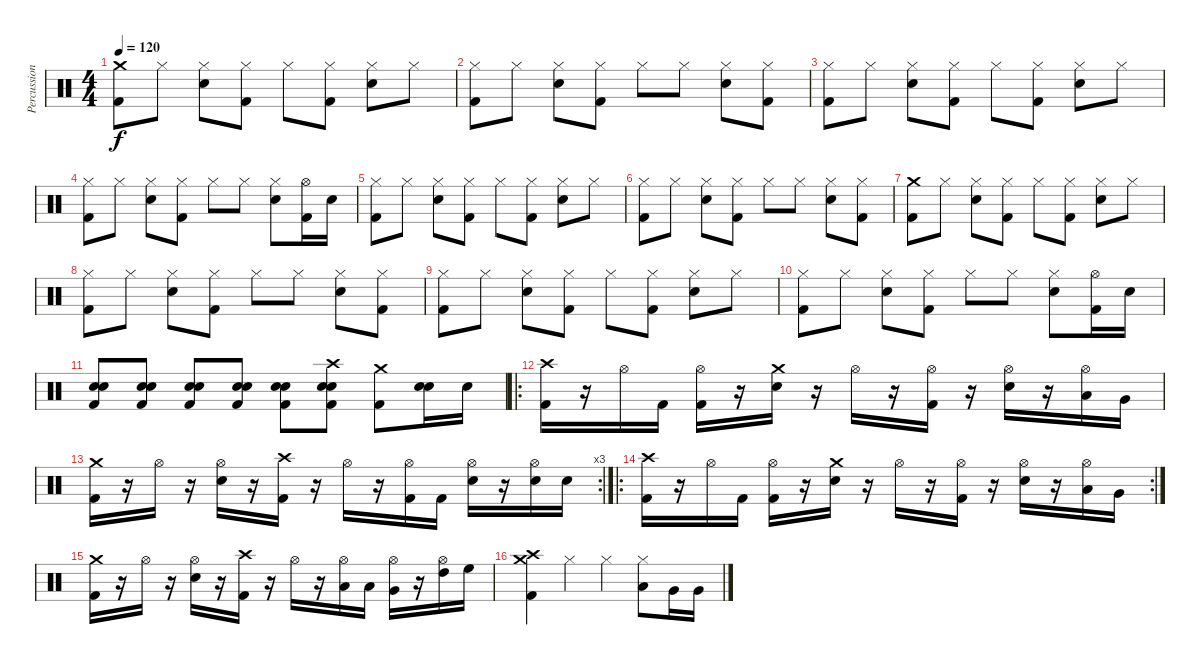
\track ("Percussion" "Percussion") {instrument percussion}
\staff {score}
\articulation defaults
\ts (4 4)
\tempo 120
\clef neutral
\ks c
("Crash medium (hit)" "Kick (hit) 2").8{dy f} "Hi-Hat (closed)".8 ("Hi-Hat (closed)" "Snare (hit) 2").8 ("Hi-Hat (closed)" "Kick (hit) 2").8 "Hi-Hat (closed)".8 ("Hi-Hat (closed)" "Kick (hit) 2").8 ("Hi-Hat (closed)" "Snare (hit) 2").8 "Hi-Hat (closed)".8 |
("Hi-Hat (closed)" "Kick (hit) 2").8 "Hi-Hat (closed)".8 ("Hi-Hat (closed)" "Snare (hit) 2").8 ("Hi-Hat (closed)" "Kick (hit) 2").8 "Hi-Hat (closed)".8 "Hi-Hat (closed)".8 ("Hi-Hat (closed)" "Snare (hit) 2").8 ("Hi-Hat (closed)" "Kick (hit) 2").8 |
("Hi-Hat (closed)" "Kick (hit) 2").8 "Hi-Hat (closed)".8 ("Hi-Hat (closed)" "Snare (hit) 2").8 ("Hi-Hat (closed)" "Kick (hit) 2").8 "Hi-Hat (closed)".8 ("Hi-Hat (closed)" "Kick (hit) 2").8 ("Hi-Hat (closed)" "Snare (hit) 2").8 "Hi-Hat (closed)".8 |
("Hi-Hat (closed)" "Kick (hit) 2").8 "Hi-Hat (closed)".8 ("Hi-Hat (closed)" "Snare (hit) 2").8 ("Hi-Hat (closed)" "Kick (hit) 2").8 "Hi-Hat (closed)".8 "Hi-Hat (closed)".8 ("Hi-Hat (closed)" "Snare (hit) 2").8 ("Hi-Hat (open)" "Kick (hit) 2").16 "Snare (hit) 2".16 |
("Hi-Hat (closed)" "Kick (hit) 2").8 "Hi-Hat (closed)".8 ("Hi-Hat (closed)" "Snare (hit) 2").8 ("Hi-Hat (closed)" "Kick (hit) 2").8 "Hi-Hat (closed)".8 ("Hi-Hat (closed)" "Kick (hit) 2").8 ("Hi-Hat (closed)" "Snare (hit) 2").8 "Hi-Hat (closed)".8 |
("Hi-Hat (closed)" "Kick (hit) 2").8 "Hi-Hat (closed)".8 ("Hi-Hat (closed)" "Snare (hit) 2").8 ("Hi-Hat (closed)" "Kick (hit) 2").8 "Hi-Hat (closed)".8 "Hi-Hat (closed)".8 ("Hi-Hat (closed)" "Snare (hit) 2").8 ("Hi-Hat (closed)" "Kick (hit) 2").8 |
("Crash medium (hit)" "Kick (hit) 2").8 "Hi-Hat (closed)".8 ("Hi-Hat (closed)" "Snare (hit) 2").8 ("Hi-Hat (closed)" "Kick (hit) 2").8 "Hi-Hat (closed)".8 ("Hi-Hat (closed)" "Kick (hit) 2").8 ("Hi-Hat (closed)" "Snare (hit) 2").8 "Hi-Hat (closed)".8 |
("Hi-Hat (closed)" "Kick (hit) 2").8 "Hi-Hat (closed)".8 ("Hi-Hat (closed)" "Snare (hit) 2").8 ("Hi-Hat (closed)" "Kick (hit) 2").8 "Hi-Hat (closed)".8 "Hi-Hat (closed)".8 ("Hi-Hat (closed)" "Snare (hit) 2").8 ("Hi-Hat (closed)" "Kick (hit) 2").8 |
("Hi-Hat (closed)" "Kick (hit) 2").8 "Hi-Hat (closed)".8 ("Hi-Hat (closed)" "Snare (hit) 2").8 ("Hi-Hat (closed)" "Kick (hit) 2").8 "Hi-Hat (closed)".8 ("Hi-Hat (closed)" "Kick (hit) 2").8 ("Hi-Hat (closed)" "Snare (hit) 2").8 "Hi-Hat (closed)".8 |
("Hi-Hat (closed)" "Kick (hit) 2").8 "Hi-Hat (closed)".8 ("Hi-Hat (closed)" "Snare (hit) 2").8 ("Hi-Hat (closed)" "Kick (hit) 2").8 "Hi-Hat (closed)".8 "Hi-Hat (closed)".8 ("Hi-Hat (closed)" "Snare (hit) 2").8 ("Hi-Hat (open)" "Kick (hit) 2").16 "Snare (hit) 2".16 |
("Snare (hit) 2" "Snare (hit) 2" "Kick (hit) 2").8 ("Snare (hit) 2" "Snare (hit) 2" "Kick (hit) 2").8 ("Snare (hit) 2" "Snare (hit) 2" "Kick (hit) 2").8 ("Snare (hit) 2" "Snare (hit) 2" "Kick (hit) 2").8 ("Snare (hit) 2" "Snare (hit) 2" "Kick (hit) 2").8 ("Crash high (hit)" "Snare (hit) 2" "Snare (hit) 2" "Kick (hit) 2").8 ("Crash medium (hit)" "Kick (hit) 2").8 ("Snare (hit) 2" "Snare (hit) 2").16 "Snare (hit) 2".16 |
\ro
("Crash high (hit)" "Kick (hit) 2").16 r.16 "Hi-Hat (open)".16 "Kick (hit) 2".16 ("Hi-Hat (open)" "Kick (hit) 2").16 r.16 ("Crash medium (hit)" "Snare (hit) 2").16 r.16 "Hi-Hat (open)".16 r.16 ("Hi-Hat (open)" "Kick (hit) 2").16 r.16 ("Hi-Hat (open)" "Snare (hit) 2").16 r.16 ("Hi-Hat (open)" "Low Tom (hit)").16 "Very Low Tom (hit)".16 |
\rc 3
("Crash medium (hit)" "Kick (hit) 2").16 r.16 "Hi-Hat (open)".16 r.16 ("Hi-Hat (open)" "Snare (hit) 2").16 r.16 ("Crash high (hit)" "Kick (hit) 2").16 r.16 "Hi-Hat (open)".16 r.16 ("Hi-Hat (open)" "Kick (hit) 2").16 "Kick (hit) 2".16 ("Hi-Hat (open)" "Snare (hit) 2").16 r.16 ("Hi-Hat (open)" "Snare (hit) 2").16 "Snare (hit) 2".16 |
\ro
\rc 2
("Crash high (hit)" "Kick (hit) 2").16 r.16 "Hi-Hat (open)".16 "Kick (hit) 2".16 ("Hi-Hat (open)" "Kick (hit) 2").16 r.16 ("Crash medium (hit)" "Snare (hit) 2").16 r.16 "Hi-Hat (open)".16 r.16 ("Hi-Hat (open)" "Kick (hit) 2").16 r.16 ("Hi-Hat (open)" "Snare (hit) 2").16 r.16 ("Hi-Hat (open)" "Low Tom (hit)").16 "Very Low Tom (hit)".16 |
("Crash medium (hit)" "Kick (hit) 2").16 r.16 "Hi-Hat (open)".16 r.16 ("Hi-Hat (open)" "Snare (hit) 2").16 r.16 ("Crash high (hit)" "Kick (hit) 2").16 r.16 "Hi-Hat (open)".16 r.16 ("Hi-Hat (open)" "Low Tom (hit)").16 "Low Tom (hit)".16 ("Hi-Hat (open)" "Very Low Tom (hit)").16 r.16 ("Hi-Hat (open)" "High Tom (hit)").16 "High Floor Tom (hit)".16 |
("Crash high (hit)" "Crash medium (hit)" "Kick (hit) 2").4 "Hi-Hat (closed)".4 "Hi-Hat (closed)".4 ("Hi-Hat (closed)" "Low Tom (hit)").8 "Very Low Tom (hit)".16 "Very Low Tom (hit)".16
